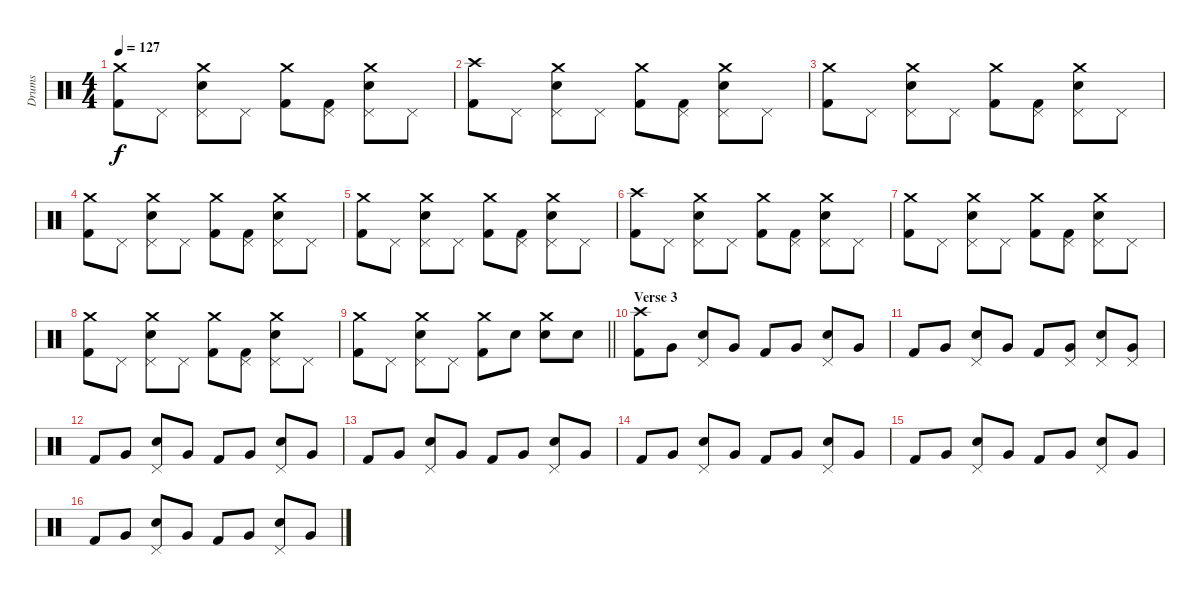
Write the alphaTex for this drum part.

\track ("Drums" "Drums") {instrument percussion}
\staff {score}
\articulation defaults
\ts (4 4)
\tempo 127
\clef neutral
\ks c
("Crash medium (hit)" "Kick (hit) 2").8{dy f} "Pedal Hi-Hat (hit)".8 ("Crash medium (hit)" "Pedal Hi-Hat (hit)" "Snare (hit) 2").8 "Pedal Hi-Hat (hit)".8 ("Crash medium (hit)" "Kick (hit) 2").8 ("Pedal Hi-Hat (hit)" "Kick (hit) 2").8 ("Crash medium (hit)" "Pedal Hi-Hat (hit)" "Snare (hit) 2").8 "Pedal Hi-Hat (hit)".8 |
("Crash high (hit)" "Kick (hit) 2").8 "Pedal Hi-Hat (hit)".8 ("Crash medium (hit)" "Pedal Hi-Hat (hit)" "Snare (hit) 2").8 "Pedal Hi-Hat (hit)".8 ("Crash medium (hit)" "Kick (hit) 2").8 ("Pedal Hi-Hat (hit)" "Kick (hit) 2").8 ("Crash medium (hit)" "Pedal Hi-Hat (hit)" "Snare (hit) 2").8 "Pedal Hi-Hat (hit)".8 |
("Crash medium (hit)" "Kick (hit) 2").8 "Pedal Hi-Hat (hit)".8 ("Crash medium (hit)" "Pedal Hi-Hat (hit)" "Snare (hit) 2").8 "Pedal Hi-Hat (hit)".8 ("Crash medium (hit)" "Kick (hit) 2").8 ("Pedal Hi-Hat (hit)" "Kick (hit) 2").8 ("Crash medium (hit)" "Pedal Hi-Hat (hit)" "Snare (hit) 2").8 "Pedal Hi-Hat (hit)".8 |
("Crash medium (hit)" "Kick (hit) 2").8 "Pedal Hi-Hat (hit)".8 ("Crash medium (hit)" "Pedal Hi-Hat (hit)" "Snare (hit) 2").8 "Pedal Hi-Hat (hit)".8 ("Crash medium (hit)" "Kick (hit) 2").8 ("Pedal Hi-Hat (hit)" "Kick (hit) 2").8 ("Crash medium (hit)" "Pedal Hi-Hat (hit)" "Snare (hit) 2").8 "Pedal Hi-Hat (hit)".8 |
("Crash medium (hit)" "Kick (hit) 2").8 "Pedal Hi-Hat (hit)".8 ("Crash medium (hit)" "Pedal Hi-Hat (hit)" "Snare (hit) 2").8 "Pedal Hi-Hat (hit)".8 ("Crash medium (hit)" "Kick (hit) 2").8 ("Pedal Hi-Hat (hit)" "Kick (hit) 2").8 ("Crash medium (hit)" "Pedal Hi-Hat (hit)" "Snare (hit) 2").8 "Pedal Hi-Hat (hit)".8 |
("Crash high (hit)" "Kick (hit) 2").8 "Pedal Hi-Hat (hit)".8 ("Crash medium (hit)" "Pedal Hi-Hat (hit)" "Snare (hit) 2").8 "Pedal Hi-Hat (hit)".8 ("Crash medium (hit)" "Kick (hit) 2").8 ("Pedal Hi-Hat (hit)" "Kick (hit) 2").8 ("Crash medium (hit)" "Pedal Hi-Hat (hit)" "Snare (hit) 2").8 "Pedal Hi-Hat (hit)".8 |
("Crash medium (hit)" "Kick (hit) 2").8 "Pedal Hi-Hat (hit)".8 ("Crash medium (hit)" "Pedal Hi-Hat (hit)" "Snare (hit) 2").8 "Pedal Hi-Hat (hit)".8 ("Crash medium (hit)" "Kick (hit) 2").8 ("Pedal Hi-Hat (hit)" "Kick (hit) 2").8 ("Crash medium (hit)" "Pedal Hi-Hat (hit)" "Snare (hit) 2").8 "Pedal Hi-Hat (hit)".8 |
("Crash medium (hit)" "Kick (hit) 2").8 "Pedal Hi-Hat (hit)".8 ("Crash medium (hit)" "Pedal Hi-Hat (hit)" "Snare (hit) 2").8 "Pedal Hi-Hat (hit)".8 ("Crash medium (hit)" "Kick (hit) 2").8 ("Pedal Hi-Hat (hit)" "Kick (hit) 2").8 ("Crash medium (hit)" "Pedal Hi-Hat (hit)" "Snare (hit) 2").8 "Pedal Hi-Hat (hit)".8 |
\barLineRight lightlight
("Crash medium (hit)" "Kick (hit) 2").8 "Pedal Hi-Hat (hit)".8 ("Crash medium (hit)" "Pedal Hi-Hat (hit)" "Snare (hit) 2").8 "Pedal Hi-Hat (hit)".8 ("Crash medium (hit)" "Kick (hit) 2").8 "Snare (hit) 2".8 ("Crash medium (hit)" "Snare (hit) 2").8 "Snare (hit) 2".8 |
\section ("" "Verse 3")
("Crash high (hit)" "Kick (hit) 2").8 "Very Low Tom (hit)".8 ("Pedal Hi-Hat (hit)" "Snare (hit) 2").8 "Very Low Tom (hit)".8 "Kick (hit) 2".8 "Very Low Tom (hit)".8 ("Pedal Hi-Hat (hit)" "Snare (hit) 2").8 "Very Low Tom (hit)".8 |
"Kick (hit) 2".8 "Very Low Tom (hit)".8 ("Pedal Hi-Hat (hit)" "Snare (hit) 2").8 "Very Low Tom (hit)".8 "Kick (hit) 2".8 ("Pedal Hi-Hat (hit)" "Very Low Tom (hit)").8 ("Pedal Hi-Hat (hit)" "Snare (hit) 2").8 ("Pedal Hi-Hat (hit)" "Very Low Tom (hit)").8 |
"Kick (hit) 2".8 "Very Low Tom (hit)".8 ("Pedal Hi-Hat (hit)" "Snare (hit) 2").8 "Very Low Tom (hit)".8 "Kick (hit) 2".8 "Very Low Tom (hit)".8 ("Pedal Hi-Hat (hit)" "Snare (hit) 2").8 "Very Low Tom (hit)".8 |
"Kick (hit) 2".8 "Very Low Tom (hit)".8 ("Pedal Hi-Hat (hit)" "Snare (hit) 2").8 "Very Low Tom (hit)".8 "Kick (hit) 2".8 "Very Low Tom (hit)".8 ("Pedal Hi-Hat (hit)" "Snare (hit) 2").8 "Very Low Tom (hit)".8 |
"Kick (hit) 2".8 "Very Low Tom (hit)".8 ("Pedal Hi-Hat (hit)" "Snare (hit) 2").8 "Very Low Tom (hit)".8 "Kick (hit) 2".8 "Very Low Tom (hit)".8 ("Pedal Hi-Hat (hit)" "Snare (hit) 2").8 "Very Low Tom (hit)".8 |
"Kick (hit) 2".8 "Very Low Tom (hit)".8 ("Pedal Hi-Hat (hit)" "Snare (hit) 2").8 "Very Low Tom (hit)".8 "Kick (hit) 2".8 "Very Low Tom (hit)".8 ("Pedal Hi-Hat (hit)" "Snare (hit) 2").8 "Very Low Tom (hit)".8 |
"Kick (hit) 2".8 "Very Low Tom (hit)".8 ("Pedal Hi-Hat (hit)" "Snare (hit) 2").8 "Very Low Tom (hit)".8 "Kick (hit) 2".8 "Very Low Tom (hit)".8 ("Pedal Hi-Hat (hit)" "Snare (hit) 2").8 "Very Low Tom (hit)".8
